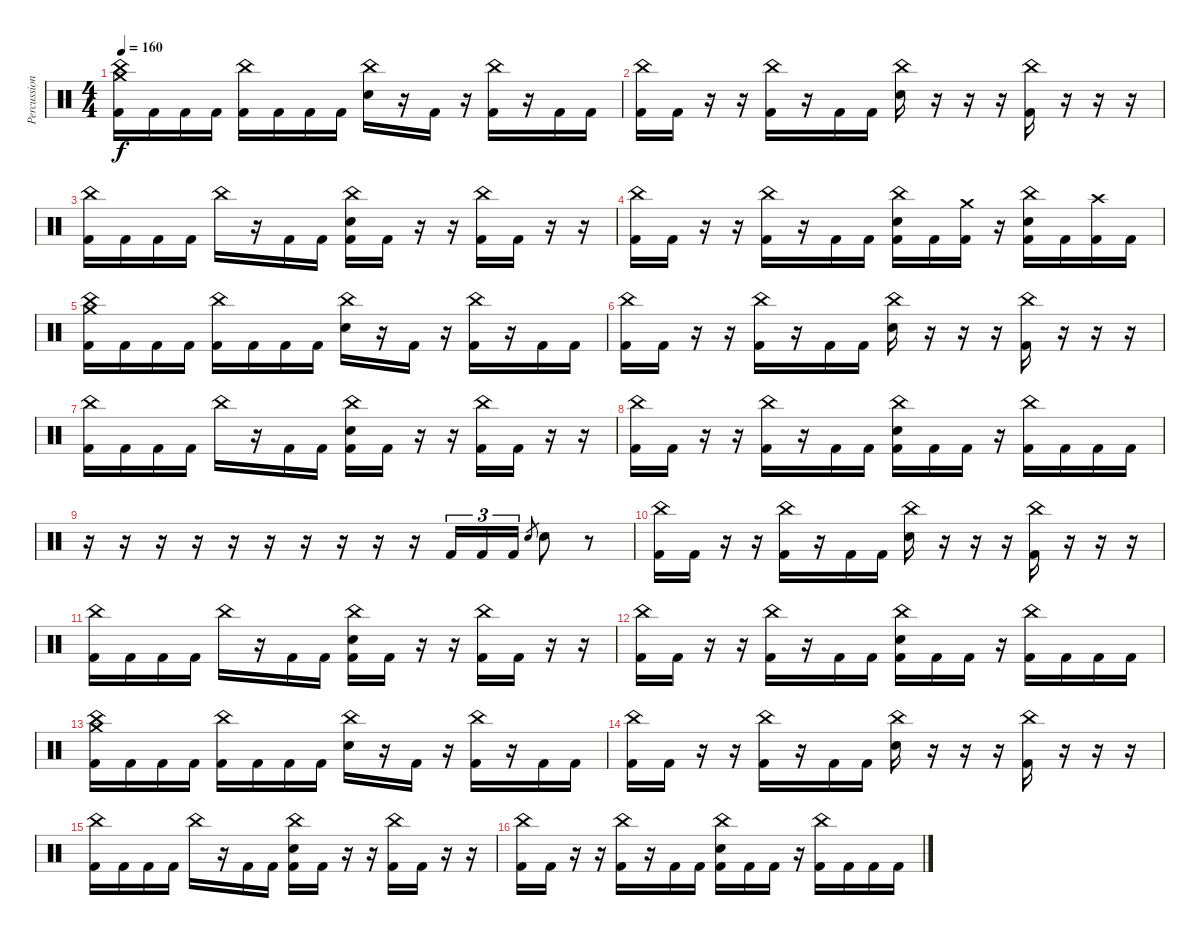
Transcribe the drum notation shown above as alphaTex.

\track ("Percussion" "Percussion") {instrument percussion}
\staff {score}
\articulation defaults
\ts (4 4)
\tempo 160
\clef neutral
\ks c
("China (hit)" "Crash medium (hit)" "Kick (hit) 2").16{dy f} "Kick (hit) 2".16 "Kick (hit) 2".16 "Kick (hit) 2".16 ("China (hit)" "Kick (hit) 2").16 "Kick (hit) 2".16 "Kick (hit) 2".16 "Kick (hit) 2".16 ("China (hit)" "Electric Snare (hit)").16 r.16 "Kick (hit) 2".16 r.16 ("China (hit)" "Kick (hit) 2").16 r.16 "Kick (hit) 2".16 "Kick (hit) 2".16 |
("China (hit)" "Kick (hit) 2").16 "Kick (hit) 2".16 r.16 r.16 ("China (hit)" "Kick (hit) 2").16 r.16 "Kick (hit) 2".16 "Kick (hit) 2".16 ("China (hit)" "Electric Snare (hit)").16 r.16 r.16 r.16 ("China (hit)" "Kick (hit) 2").16 r.16 r.16 r.16 |
("China (hit)" "Kick (hit) 2").16 "Kick (hit) 2".16 "Kick (hit) 2".16 "Kick (hit) 2".16 "China (hit)".16 r.16 "Kick (hit) 2".16 "Kick (hit) 2".16 ("China (hit)" "Electric Snare (hit)" "Kick (hit) 2").16 "Kick (hit) 2".16 r.16 r.16 ("China (hit)" "Kick (hit) 2").16 "Kick (hit) 2".16 r.16 r.16 |
("China (hit)" "Kick (hit) 2").16 "Kick (hit) 2".16 r.16 r.16 ("China (hit)" "Kick (hit) 2").16 r.16 "Kick (hit) 2".16 "Kick (hit) 2".16 ("China (hit)" "Electric Snare (hit)" "Kick (hit) 2").16 "Kick (hit) 2".16 ("Crash medium (hit)" "Kick (hit) 2").16 r.16 ("China (hit)" "Electric Snare (hit)" "Kick (hit) 2").16 "Kick (hit) 2".16 ("Crash high (hit)" "Kick (hit) 2").16 "Kick (hit) 2".16 |
("China (hit)" "Crash medium (hit)" "Kick (hit) 2").16 "Kick (hit) 2".16 "Kick (hit) 2".16 "Kick (hit) 2".16 ("China (hit)" "Kick (hit) 2").16 "Kick (hit) 2".16 "Kick (hit) 2".16 "Kick (hit) 2".16 ("China (hit)" "Electric Snare (hit)").16 r.16 "Kick (hit) 2".16 r.16 ("China (hit)" "Kick (hit) 2").16 r.16 "Kick (hit) 2".16 "Kick (hit) 2".16 |
("China (hit)" "Kick (hit) 2").16 "Kick (hit) 2".16 r.16 r.16 ("China (hit)" "Kick (hit) 2").16 r.16 "Kick (hit) 2".16 "Kick (hit) 2".16 ("China (hit)" "Electric Snare (hit)").16 r.16 r.16 r.16 ("China (hit)" "Kick (hit) 2").16 r.16 r.16 r.16 |
("China (hit)" "Kick (hit) 2").16 "Kick (hit) 2".16 "Kick (hit) 2".16 "Kick (hit) 2".16 "China (hit)".16 r.16 "Kick (hit) 2".16 "Kick (hit) 2".16 ("China (hit)" "Electric Snare (hit)" "Kick (hit) 2").16 "Kick (hit) 2".16 r.16 r.16 ("China (hit)" "Kick (hit) 2").16 "Kick (hit) 2".16 r.16 r.16 |
("China (hit)" "Kick (hit) 2").16 "Kick (hit) 2".16 r.16 r.16 ("China (hit)" "Kick (hit) 2").16 r.16 "Kick (hit) 2".16 "Kick (hit) 2".16 ("China (hit)" "Electric Snare (hit)" "Kick (hit) 2").16 "Kick (hit) 2".16 "Kick (hit) 2".16 r.16 ("China (hit)" "Kick (hit) 2").16 "Kick (hit) 2".16 "Kick (hit) 2".16 "Kick (hit) 2".16 |
r.16 r.16 r.16 r.16 r.16 r.16 r.16 r.16 r.16 r.16 "Kick (hit) 2".16{tu (3 2)} "Kick (hit) 2".16{tu (3 2)} "Kick (hit) 2".16{tu (3 2)} "Electric Snare (hit)".8{gr} "Electric Snare (hit)".8 r.8 |
("China (hit)" "Kick (hit) 2").16 "Kick (hit) 2".16 r.16 r.16 ("China (hit)" "Kick (hit) 2").16 r.16 "Kick (hit) 2".16 "Kick (hit) 2".16 ("China (hit)" "Electric Snare (hit)").16 r.16 r.16 r.16 ("China (hit)" "Kick (hit) 2").16 r.16 r.16 r.16 |
("China (hit)" "Kick (hit) 2").16 "Kick (hit) 2".16 "Kick (hit) 2".16 "Kick (hit) 2".16 "China (hit)".16 r.16 "Kick (hit) 2".16 "Kick (hit) 2".16 ("China (hit)" "Electric Snare (hit)" "Kick (hit) 2").16 "Kick (hit) 2".16 r.16 r.16 ("China (hit)" "Kick (hit) 2").16 "Kick (hit) 2".16 r.16 r.16 |
("China (hit)" "Kick (hit) 2").16 "Kick (hit) 2".16 r.16 r.16 ("China (hit)" "Kick (hit) 2").16 r.16 "Kick (hit) 2".16 "Kick (hit) 2".16 ("China (hit)" "Electric Snare (hit)" "Kick (hit) 2").16 "Kick (hit) 2".16 "Kick (hit) 2".16 r.16 ("China (hit)" "Kick (hit) 2").16 "Kick (hit) 2".16 "Kick (hit) 2".16 "Kick (hit) 2".16 |
("China (hit)" "Crash medium (hit)" "Kick (hit) 2").16 "Kick (hit) 2".16 "Kick (hit) 2".16 "Kick (hit) 2".16 ("China (hit)" "Kick (hit) 2").16 "Kick (hit) 2".16 "Kick (hit) 2".16 "Kick (hit) 2".16 ("China (hit)" "Electric Snare (hit)").16 r.16 "Kick (hit) 2".16 r.16 ("China (hit)" "Kick (hit) 2").16 r.16 "Kick (hit) 2".16 "Kick (hit) 2".16 |
("China (hit)" "Kick (hit) 2").16 "Kick (hit) 2".16 r.16 r.16 ("China (hit)" "Kick (hit) 2").16 r.16 "Kick (hit) 2".16 "Kick (hit) 2".16 ("China (hit)" "Electric Snare (hit)").16 r.16 r.16 r.16 ("China (hit)" "Kick (hit) 2").16 r.16 r.16 r.16 |
("China (hit)" "Kick (hit) 2").16 "Kick (hit) 2".16 "Kick (hit) 2".16 "Kick (hit) 2".16 "China (hit)".16 r.16 "Kick (hit) 2".16 "Kick (hit) 2".16 ("China (hit)" "Electric Snare (hit)" "Kick (hit) 2").16 "Kick (hit) 2".16 r.16 r.16 ("China (hit)" "Kick (hit) 2").16 "Kick (hit) 2".16 r.16 r.16 |
("China (hit)" "Kick (hit) 2").16 "Kick (hit) 2".16 r.16 r.16 ("China (hit)" "Kick (hit) 2").16 r.16 "Kick (hit) 2".16 "Kick (hit) 2".16 ("China (hit)" "Electric Snare (hit)" "Kick (hit) 2").16 "Kick (hit) 2".16 "Kick (hit) 2".16 r.16 ("China (hit)" "Kick (hit) 2").16 "Kick (hit) 2".16 "Kick (hit) 2".16 "Kick (hit) 2".16
